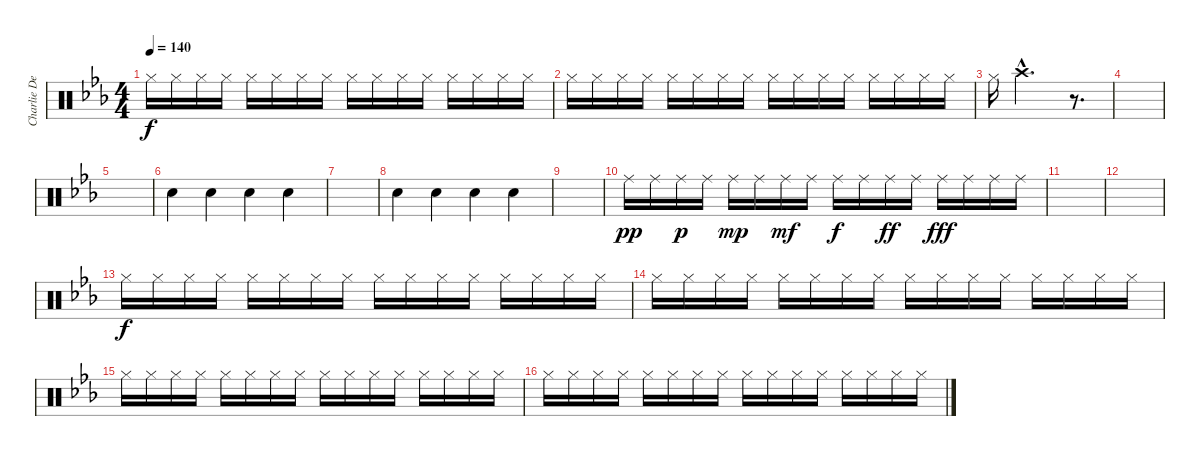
\track ("Charlie Devil" "Charlie De") {instrument percussion}
\staff {score}
\articulation defaults
\ts (4 4)
\tempo 140
\clef neutral
\ks eb "Hi-Hat (closed)".16{dy f} "Hi-Hat (closed)".16 "Hi-Hat (closed)".16 "Hi-Hat (closed)".16 "Hi-Hat (closed)".16 "Hi-Hat (closed)".16 "Hi-Hat (closed)".16 "Hi-Hat (closed)".16 "Hi-Hat (closed)".16 "Hi-Hat (closed)".16 "Hi-Hat (closed)".16 "Hi-Hat (closed)".16 "Hi-Hat (closed)".16 "Hi-Hat (closed)".16 "Hi-Hat (closed)".16 "Hi-Hat (closed)".16
|
"Hi-Hat (closed)".16 "Hi-Hat (closed)".16 "Hi-Hat (closed)".16 "Hi-Hat (closed)".16 "Hi-Hat (closed)".16 "Hi-Hat (closed)".16 "Hi-Hat (closed)".16 "Hi-Hat (closed)".16 "Hi-Hat (closed)".16 "Hi-Hat (closed)".16 "Hi-Hat (closed)".16 "Hi-Hat (closed)".16 "Hi-Hat (closed)".16 "Hi-Hat (closed)".16 "Hi-Hat (closed)".16 "Hi-Hat (closed)".16 |
"Hi-Hat (closed)".16 "Crash high (hit)"{hac}.2{d} r.8{d} |
|
|
"Hand Clap (hit)".4 "Hand Clap (hit)".4 "Hand Clap (hit)".4 "Hand Clap (hit)".4 |
|
"Hand Clap (hit)".4 "Hand Clap (hit)".4 "Hand Clap (hit)".4 "Hand Clap (hit)".4 |
|
"Ride (middle)".16{dy pp} "Ride (middle)".16 "Ride (middle)".16{dy p} "Ride (middle)".16 "Ride (middle)".16{dy mp} "Ride (middle)".16 "Ride (middle)".16{dy mf} "Ride (middle)".16 "Ride (middle)".16{dy f} "Ride (middle)".16 "Ride (middle)".16{dy ff} "Ride (middle)".16 "Ride (middle)".16{dy fff} "Ride (middle)".16 "Ride (middle)".16 "Ride (middle)".16 |
|
|
"Hi-Hat (closed)".16{dy f} "Hi-Hat (closed)".16 "Hi-Hat (closed)".16 "Hi-Hat (closed)".16 "Hi-Hat (closed)".16 "Hi-Hat (closed)".16 "Hi-Hat (closed)".16 "Hi-Hat (closed)".16 "Hi-Hat (closed)".16 "Hi-Hat (closed)".16 "Hi-Hat (closed)".16 "Hi-Hat (closed)".16 "Hi-Hat (closed)".16 "Hi-Hat (closed)".16 "Hi-Hat (closed)".16 "Hi-Hat (closed)".16 |
"Hi-Hat (closed)".16 "Hi-Hat (closed)".16 "Hi-Hat (closed)".16 "Hi-Hat (closed)".16 "Hi-Hat (closed)".16 "Hi-Hat (closed)".16 "Hi-Hat (closed)".16 "Hi-Hat (closed)".16 "Hi-Hat (closed)".16 "Hi-Hat (closed)".16 "Hi-Hat (closed)".16 "Hi-Hat (closed)".16 "Hi-Hat (closed)".16 "Hi-Hat (closed)".16 "Hi-Hat (closed)".16 "Hi-Hat (closed)".16 |
"Hi-Hat (closed)".16 "Hi-Hat (closed)".16 "Hi-Hat (closed)".16 "Hi-Hat (closed)".16 "Hi-Hat (closed)".16 "Hi-Hat (closed)".16 "Hi-Hat (closed)".16 "Hi-Hat (closed)".16 "Hi-Hat (closed)".16 "Hi-Hat (closed)".16 "Hi-Hat (closed)".16 "Hi-Hat (closed)".16 "Hi-Hat (closed)".16 "Hi-Hat (closed)".16 "Hi-Hat (closed)".16 "Hi-Hat (closed)".16 |
"Hi-Hat (closed)".16 "Hi-Hat (closed)".16 "Hi-Hat (closed)".16 "Hi-Hat (closed)".16 "Hi-Hat (closed)".16 "Hi-Hat (closed)".16 "Hi-Hat (closed)".16 "Hi-Hat (closed)".16 "Hi-Hat (closed)".16 "Hi-Hat (closed)".16 "Hi-Hat (closed)".16 "Hi-Hat (closed)".16 "Hi-Hat (closed)".16 "Hi-Hat (closed)".16 "Hi-Hat (closed)".16 "Hi-Hat (closed)".16
